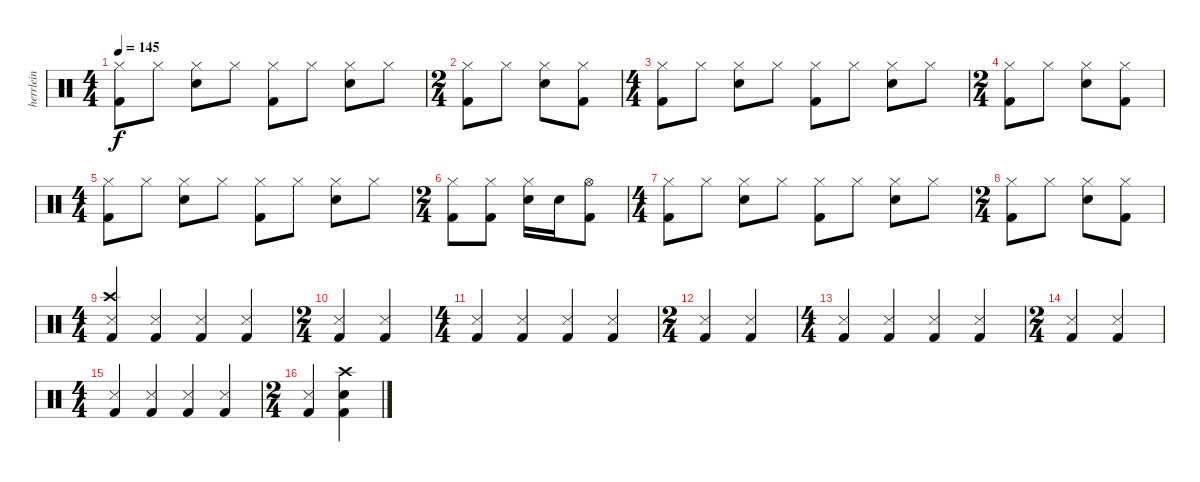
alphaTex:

\track ("herrlein" "herrlein") {instrument percussion}
\staff {score}
\articulation defaults
\ts (4 4)
\tempo 145
\clef neutral
\ks c
("Kick (hit) 2" "Hi-Hat (closed)").8{dy f} "Hi-Hat (closed)".8 ("Hi-Hat (closed)" "Snare (hit) 2").8 "Hi-Hat (closed)".8 ("Kick (hit) 2" "Hi-Hat (closed)").8 "Hi-Hat (closed)".8 ("Hi-Hat (closed)" "Snare (hit) 2").8 "Hi-Hat (closed)".8 |
\ts (2 4)
("Kick (hit) 2" "Hi-Hat (closed)").8 "Hi-Hat (closed)".8 ("Hi-Hat (closed)" "Snare (hit) 2").8 ("Kick (hit) 2" "Hi-Hat (closed)").8 |
\ts (4 4)
("Kick (hit) 2" "Hi-Hat (closed)").8 "Hi-Hat (closed)".8 ("Hi-Hat (closed)" "Snare (hit) 2").8 "Hi-Hat (closed)".8 ("Kick (hit) 2" "Hi-Hat (closed)").8 "Hi-Hat (closed)".8 ("Hi-Hat (closed)" "Snare (hit) 2").8 "Hi-Hat (closed)".8 |
\ts (2 4)
("Kick (hit) 2" "Hi-Hat (closed)").8 "Hi-Hat (closed)".8 ("Hi-Hat (closed)" "Snare (hit) 2").8 ("Kick (hit) 2" "Hi-Hat (closed)").8 |
\ts (4 4)
("Kick (hit) 2" "Hi-Hat (closed)").8 "Hi-Hat (closed)".8 ("Hi-Hat (closed)" "Snare (hit) 2").8 "Hi-Hat (closed)".8 ("Kick (hit) 2" "Hi-Hat (closed)").8 "Hi-Hat (closed)".8 ("Hi-Hat (closed)" "Snare (hit) 2").8 "Hi-Hat (closed)".8 |
\ts (2 4)
("Kick (hit) 2" "Hi-Hat (closed)").8 ("Kick (hit) 2" "Hi-Hat (closed)").8 ("Hi-Hat (closed)" "Snare (hit) 2").16 "Snare (hit) 2".16 ("Kick (hit) 2" "Hi-Hat (open)").8 |
\ts (4 4)
("Kick (hit) 2" "Hi-Hat (closed)").8 "Hi-Hat (closed)".8 ("Hi-Hat (closed)" "Snare (hit) 2").8 "Hi-Hat (closed)".8 ("Kick (hit) 2" "Hi-Hat (closed)").8 "Hi-Hat (closed)".8 ("Hi-Hat (closed)" "Snare (hit) 2").8 "Hi-Hat (closed)".8 |
\ts (2 4)
("Kick (hit) 2" "Hi-Hat (closed)").8 "Hi-Hat (closed)".8 ("Hi-Hat (closed)" "Snare (hit) 2").8 ("Kick (hit) 2" "Hi-Hat (closed)").8 |
\ts (4 4)
("Crash high (hit)" "Snare (side stick) 3" "Kick (hit) 2").4 ("Snare (side stick) 3" "Kick (hit) 2").4 ("Snare (side stick) 3" "Kick (hit) 2").4 ("Snare (side stick) 3" "Kick (hit) 2").4 |
\ts (2 4)
("Snare (side stick) 3" "Kick (hit) 2").4 ("Snare (side stick) 3" "Kick (hit) 2").4 |
\ts (4 4)
("Snare (side stick) 3" "Kick (hit) 2").4 ("Snare (side stick) 3" "Kick (hit) 2").4 ("Snare (side stick) 3" "Kick (hit) 2").4 ("Snare (side stick) 3" "Kick (hit) 2").4 |
\ts (2 4)
("Snare (side stick) 3" "Kick (hit) 2").4 ("Snare (side stick) 3" "Kick (hit) 2").4 |
\ts (4 4)
("Snare (side stick) 3" "Kick (hit) 2").4 ("Snare (side stick) 3" "Kick (hit) 2").4 ("Snare (side stick) 3" "Kick (hit) 2").4 ("Snare (side stick) 3" "Kick (hit) 2").4 |
\ts (2 4)
("Snare (side stick) 3" "Kick (hit) 2").4 ("Snare (side stick) 3" "Kick (hit) 2").4 |
\ts (4 4)
("Snare (side stick) 3" "Kick (hit) 2").4 ("Snare (side stick) 3" "Kick (hit) 2").4 ("Snare (side stick) 3" "Kick (hit) 2").4 ("Snare (side stick) 3" "Kick (hit) 2").4 |
\ts (2 4)
("Snare (side stick) 3" "Kick (hit) 2").4 ("Crash high (hit)" "Snare (hit) 2" "Kick (hit) 2").4
